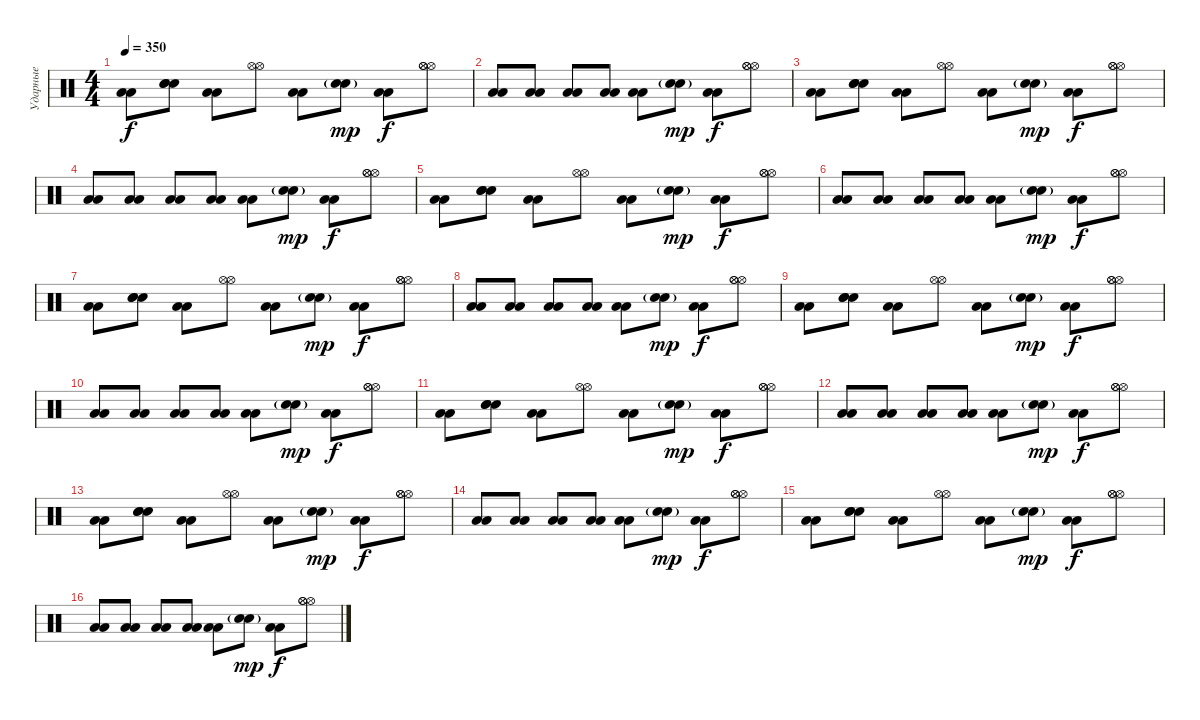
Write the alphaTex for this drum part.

\track ("Ударные" "Ударные") {instrument percussion}
\staff {score}
\articulation defaults
\ts (4 4)
\tempo 350
\clef neutral
\ks c
("Low Floor Tom (hit)" "Low Floor Tom (hit)").8{dy f} ("Electric Snare (hit)" "Electric Snare (hit)" "Electric Snare (hit)").8 ("Low Floor Tom (hit)" "Low Floor Tom (hit)").8 ("Hi-Hat (open)" "Hi-Hat (open)").8 ("Low Floor Tom (hit)" "Low Floor Tom (hit)").8 ("Electric Snare (hit)"{g} "Electric Snare (hit)"{g}).8{dy mp} ("Low Floor Tom (hit)" "Low Floor Tom (hit)").8{dy f} ("Hi-Hat (open)" "Hi-Hat (open)" "Hi-Hat (open)").8 |
("Low Floor Tom (hit)" "Low Floor Tom (hit)").8 ("Low Floor Tom (hit)" "Low Floor Tom (hit)").8 ("Low Floor Tom (hit)" "Low Floor Tom (hit)").8 ("Low Floor Tom (hit)" "Low Floor Tom (hit)").8 ("Low Floor Tom (hit)" "Low Floor Tom (hit)").8 ("Electric Snare (hit)"{g} "Electric Snare (hit)"{g}).8{dy mp} ("Low Floor Tom (hit)" "Low Floor Tom (hit)").8{dy f} ("Hi-Hat (open)" "Hi-Hat (open)" "Hi-Hat (open)").8 |
("Low Floor Tom (hit)" "Low Floor Tom (hit)").8 ("Electric Snare (hit)" "Electric Snare (hit)" "Electric Snare (hit)").8 ("Low Floor Tom (hit)" "Low Floor Tom (hit)").8 ("Hi-Hat (open)" "Hi-Hat (open)").8 ("Low Floor Tom (hit)" "Low Floor Tom (hit)").8 ("Electric Snare (hit)"{g} "Electric Snare (hit)"{g}).8{dy mp} ("Low Floor Tom (hit)" "Low Floor Tom (hit)").8{dy f} ("Hi-Hat (open)" "Hi-Hat (open)" "Hi-Hat (open)").8 |
("Low Floor Tom (hit)" "Low Floor Tom (hit)").8 ("Low Floor Tom (hit)" "Low Floor Tom (hit)").8 ("Low Floor Tom (hit)" "Low Floor Tom (hit)").8 ("Low Floor Tom (hit)" "Low Floor Tom (hit)").8 ("Low Floor Tom (hit)" "Low Floor Tom (hit)").8 ("Electric Snare (hit)"{g} "Electric Snare (hit)"{g}).8{dy mp} ("Low Floor Tom (hit)" "Low Floor Tom (hit)").8{dy f} ("Hi-Hat (open)" "Hi-Hat (open)" "Hi-Hat (open)").8 |
("Low Floor Tom (hit)" "Low Floor Tom (hit)").8 ("Electric Snare (hit)" "Electric Snare (hit)" "Electric Snare (hit)").8 ("Low Floor Tom (hit)" "Low Floor Tom (hit)").8 ("Hi-Hat (open)" "Hi-Hat (open)").8 ("Low Floor Tom (hit)" "Low Floor Tom (hit)").8 ("Electric Snare (hit)"{g} "Electric Snare (hit)"{g}).8{dy mp} ("Low Floor Tom (hit)" "Low Floor Tom (hit)").8{dy f} ("Hi-Hat (open)" "Hi-Hat (open)" "Hi-Hat (open)").8 |
("Low Floor Tom (hit)" "Low Floor Tom (hit)").8 ("Low Floor Tom (hit)" "Low Floor Tom (hit)").8 ("Low Floor Tom (hit)" "Low Floor Tom (hit)").8 ("Low Floor Tom (hit)" "Low Floor Tom (hit)").8 ("Low Floor Tom (hit)" "Low Floor Tom (hit)").8 ("Electric Snare (hit)"{g} "Electric Snare (hit)"{g}).8{dy mp} ("Low Floor Tom (hit)" "Low Floor Tom (hit)").8{dy f} ("Hi-Hat (open)" "Hi-Hat (open)" "Hi-Hat (open)").8 |
("Low Floor Tom (hit)" "Low Floor Tom (hit)").8 ("Electric Snare (hit)" "Electric Snare (hit)" "Electric Snare (hit)").8 ("Low Floor Tom (hit)" "Low Floor Tom (hit)").8 ("Hi-Hat (open)" "Hi-Hat (open)").8 ("Low Floor Tom (hit)" "Low Floor Tom (hit)").8 ("Electric Snare (hit)"{g} "Electric Snare (hit)"{g}).8{dy mp} ("Low Floor Tom (hit)" "Low Floor Tom (hit)").8{dy f} ("Hi-Hat (open)" "Hi-Hat (open)" "Hi-Hat (open)").8 |
("Low Floor Tom (hit)" "Low Floor Tom (hit)").8 ("Low Floor Tom (hit)" "Low Floor Tom (hit)").8 ("Low Floor Tom (hit)" "Low Floor Tom (hit)").8 ("Low Floor Tom (hit)" "Low Floor Tom (hit)").8 ("Low Floor Tom (hit)" "Low Floor Tom (hit)").8 ("Electric Snare (hit)"{g} "Electric Snare (hit)"{g}).8{dy mp} ("Low Floor Tom (hit)" "Low Floor Tom (hit)").8{dy f} ("Hi-Hat (open)" "Hi-Hat (open)" "Hi-Hat (open)").8 |
("Low Floor Tom (hit)" "Low Floor Tom (hit)").8 ("Electric Snare (hit)" "Electric Snare (hit)" "Electric Snare (hit)").8 ("Low Floor Tom (hit)" "Low Floor Tom (hit)").8 ("Hi-Hat (open)" "Hi-Hat (open)").8 ("Low Floor Tom (hit)" "Low Floor Tom (hit)").8 ("Electric Snare (hit)"{g} "Electric Snare (hit)"{g}).8{dy mp} ("Low Floor Tom (hit)" "Low Floor Tom (hit)").8{dy f} ("Hi-Hat (open)" "Hi-Hat (open)" "Hi-Hat (open)").8 |
("Low Floor Tom (hit)" "Low Floor Tom (hit)").8 ("Low Floor Tom (hit)" "Low Floor Tom (hit)").8 ("Low Floor Tom (hit)" "Low Floor Tom (hit)").8 ("Low Floor Tom (hit)" "Low Floor Tom (hit)").8 ("Low Floor Tom (hit)" "Low Floor Tom (hit)").8 ("Electric Snare (hit)"{g} "Electric Snare (hit)"{g}).8{dy mp} ("Low Floor Tom (hit)" "Low Floor Tom (hit)").8{dy f} ("Hi-Hat (open)" "Hi-Hat (open)" "Hi-Hat (open)").8 |
("Low Floor Tom (hit)" "Low Floor Tom (hit)").8 ("Electric Snare (hit)" "Electric Snare (hit)" "Electric Snare (hit)").8 ("Low Floor Tom (hit)" "Low Floor Tom (hit)").8 ("Hi-Hat (open)" "Hi-Hat (open)").8 ("Low Floor Tom (hit)" "Low Floor Tom (hit)").8 ("Electric Snare (hit)"{g} "Electric Snare (hit)"{g}).8{dy mp} ("Low Floor Tom (hit)" "Low Floor Tom (hit)").8{dy f} ("Hi-Hat (open)" "Hi-Hat (open)" "Hi-Hat (open)").8 |
("Low Floor Tom (hit)" "Low Floor Tom (hit)").8 ("Low Floor Tom (hit)" "Low Floor Tom (hit)").8 ("Low Floor Tom (hit)" "Low Floor Tom (hit)").8 ("Low Floor Tom (hit)" "Low Floor Tom (hit)").8 ("Low Floor Tom (hit)" "Low Floor Tom (hit)").8 ("Electric Snare (hit)"{g} "Electric Snare (hit)"{g}).8{dy mp} ("Low Floor Tom (hit)" "Low Floor Tom (hit)").8{dy f} ("Hi-Hat (open)" "Hi-Hat (open)" "Hi-Hat (open)").8 |
("Low Floor Tom (hit)" "Low Floor Tom (hit)").8 ("Electric Snare (hit)" "Electric Snare (hit)" "Electric Snare (hit)").8 ("Low Floor Tom (hit)" "Low Floor Tom (hit)").8 ("Hi-Hat (open)" "Hi-Hat (open)").8 ("Low Floor Tom (hit)" "Low Floor Tom (hit)").8 ("Electric Snare (hit)"{g} "Electric Snare (hit)"{g}).8{dy mp} ("Low Floor Tom (hit)" "Low Floor Tom (hit)").8{dy f} ("Hi-Hat (open)" "Hi-Hat (open)" "Hi-Hat (open)").8 |
("Low Floor Tom (hit)" "Low Floor Tom (hit)").8 ("Low Floor Tom (hit)" "Low Floor Tom (hit)").8 ("Low Floor Tom (hit)" "Low Floor Tom (hit)").8 ("Low Floor Tom (hit)" "Low Floor Tom (hit)").8 ("Low Floor Tom (hit)" "Low Floor Tom (hit)").8 ("Electric Snare (hit)"{g} "Electric Snare (hit)"{g}).8{dy mp} ("Low Floor Tom (hit)" "Low Floor Tom (hit)").8{dy f} ("Hi-Hat (open)" "Hi-Hat (open)" "Hi-Hat (open)").8 |
("Low Floor Tom (hit)" "Low Floor Tom (hit)").8 ("Electric Snare (hit)" "Electric Snare (hit)" "Electric Snare (hit)").8 ("Low Floor Tom (hit)" "Low Floor Tom (hit)").8 ("Hi-Hat (open)" "Hi-Hat (open)").8 ("Low Floor Tom (hit)" "Low Floor Tom (hit)").8 ("Electric Snare (hit)"{g} "Electric Snare (hit)"{g}).8{dy mp} ("Low Floor Tom (hit)" "Low Floor Tom (hit)").8{dy f} ("Hi-Hat (open)" "Hi-Hat (open)" "Hi-Hat (open)").8 |
("Low Floor Tom (hit)" "Low Floor Tom (hit)").8 ("Low Floor Tom (hit)" "Low Floor Tom (hit)").8 ("Low Floor Tom (hit)" "Low Floor Tom (hit)").8 ("Low Floor Tom (hit)" "Low Floor Tom (hit)").8 ("Low Floor Tom (hit)" "Low Floor Tom (hit)").8 ("Electric Snare (hit)"{g} "Electric Snare (hit)"{g}).8{dy mp} ("Low Floor Tom (hit)" "Low Floor Tom (hit)").8{dy f} ("Hi-Hat (open)" "Hi-Hat (open)" "Hi-Hat (open)").8
